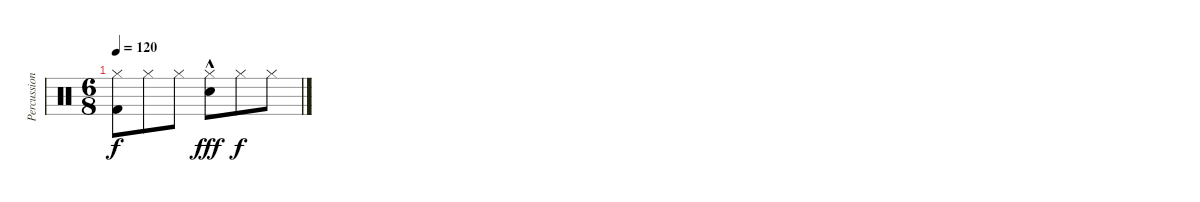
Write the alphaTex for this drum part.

\track ("Percussion" "Percussion") {mute instrument percussion}
\staff {score}
\articulation defaults
\ts (6 8)
\tempo 120
\clef neutral
\ks c
("Kick (hit) 2" "Hi-Hat (closed)").8{dy f} "Hi-Hat (closed)".8 "Hi-Hat (closed)".8 ("Snare (hit) 2"{hac} "Hi-Hat (closed)").8{dy fff} "Hi-Hat (closed)".8{dy f} "Hi-Hat (closed)".8
